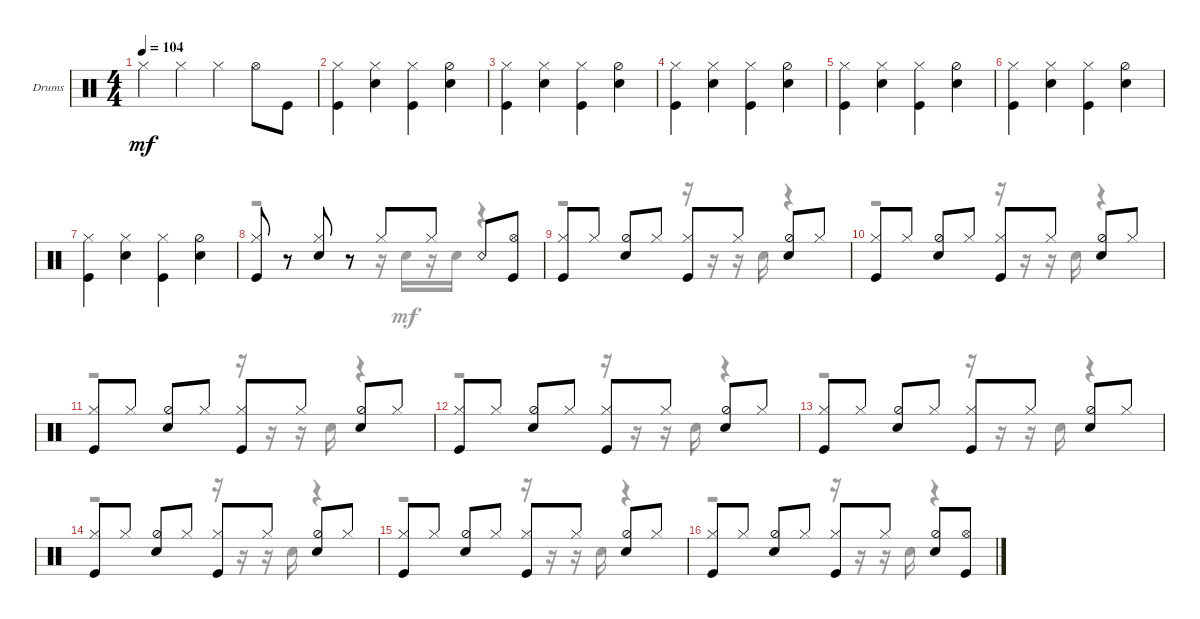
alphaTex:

\defaultSystemsLayout 4
\bracketExtendMode groupsimilarinstruments
\firstSystemTrackNameOrientation horizontal
\otherSystemsTrackNameOrientation horizontal
\track ("Drumkit" "Drums") {instrument percussion}
\staff {score}
\articulation defaults
\voice
\ts (4 4)
\tempo 104
\clef neutral
\ks c "Hi-Hat (closed)".4{dy mf} "Hi-Hat (closed)".4 "Hi-Hat (closed)".4 "Hi-Hat (open)".8 "Kick (hit)".8
|
("Hi-Hat (closed)" "Kick (hit)").4 ("Hi-Hat (closed)" "Snare (hit) 2").4 ("Hi-Hat (closed)" "Kick (hit)").4 ("Hi-Hat (half)" "Snare (hit) 2").4 |
("Hi-Hat (closed)" "Kick (hit)").4 ("Hi-Hat (closed)" "Snare (hit) 2").4 ("Hi-Hat (closed)" "Kick (hit)").4 ("Hi-Hat (half)" "Snare (hit) 2").4 |
("Hi-Hat (closed)" "Kick (hit)").4 ("Hi-Hat (closed)" "Snare (hit) 2").4 ("Hi-Hat (closed)" "Kick (hit)").4 ("Hi-Hat (half)" "Snare (hit) 2").4 |
("Hi-Hat (closed)" "Kick (hit)").4 ("Hi-Hat (closed)" "Snare (hit) 2").4 ("Hi-Hat (closed)" "Kick (hit)").4 ("Hi-Hat (half)" "Snare (hit) 2").4 |
("Hi-Hat (closed)" "Kick (hit)").4 ("Hi-Hat (closed)" "Snare (hit) 2").4 ("Hi-Hat (closed)" "Kick (hit)").4 ("Hi-Hat (half)" "Snare (hit) 2").4 |
("Hi-Hat (closed)" "Kick (hit)").4 ("Hi-Hat (closed)" "Snare (hit) 2").4 ("Hi-Hat (closed)" "Kick (hit)").4 ("Hi-Hat (half)" "Snare (hit) 2").4 |
("Hi-Hat (closed)" "Kick (hit)").8 r.8 ("Snare (hit) 2" "Hi-Hat (closed)").8 r.8 "Hi-Hat (closed)".8 "Hi-Hat (closed)".8 "Snare (rim shot)".8 ("Hi-Hat (open)" "Kick (hit)").8 |
("Hi-Hat (closed)" "Kick (hit)").8 "Hi-Hat (closed)".8 ("Hi-Hat (half)" "Snare (hit) 2").8 "Hi-Hat (closed)".8 ("Hi-Hat (closed)" "Kick (hit)").8 "Hi-Hat (closed)".8 ("Hi-Hat (half)" "Snare (hit) 2").8 "Hi-Hat (closed)".8 |
("Hi-Hat (closed)" "Kick (hit)").8 "Hi-Hat (closed)".8 ("Hi-Hat (half)" "Snare (hit) 2").8 "Hi-Hat (closed)".8 ("Hi-Hat (closed)" "Kick (hit)").8 "Hi-Hat (closed)".8 ("Hi-Hat (half)" "Snare (hit) 2").8 "Hi-Hat (closed)".8 |
("Hi-Hat (closed)" "Kick (hit)").8 "Hi-Hat (closed)".8 ("Hi-Hat (half)" "Snare (hit) 2").8 "Hi-Hat (closed)".8 ("Hi-Hat (closed)" "Kick (hit)").8 "Hi-Hat (closed)".8 ("Hi-Hat (half)" "Snare (hit) 2").8 "Hi-Hat (closed)".8 |
("Hi-Hat (closed)" "Kick (hit)").8 "Hi-Hat (closed)".8 ("Hi-Hat (half)" "Snare (hit) 2").8 "Hi-Hat (closed)".8 ("Hi-Hat (closed)" "Kick (hit)").8 "Hi-Hat (closed)".8 ("Hi-Hat (half)" "Snare (hit) 2").8 "Hi-Hat (closed)".8 |
("Hi-Hat (closed)" "Kick (hit)").8 "Hi-Hat (closed)".8 ("Hi-Hat (half)" "Snare (hit) 2").8 "Hi-Hat (closed)".8 ("Hi-Hat (closed)" "Kick (hit)").8 "Hi-Hat (closed)".8 ("Hi-Hat (half)" "Snare (hit) 2").8 "Hi-Hat (closed)".8 |
("Hi-Hat (closed)" "Kick (hit)").8 "Hi-Hat (closed)".8 ("Hi-Hat (half)" "Snare (hit) 2").8 "Hi-Hat (closed)".8 ("Hi-Hat (closed)" "Kick (hit)").8 "Hi-Hat (closed)".8 ("Hi-Hat (half)" "Snare (hit) 2").8 "Hi-Hat (closed)".8 |
("Hi-Hat (closed)" "Kick (hit)").8 "Hi-Hat (closed)".8 ("Hi-Hat (half)" "Snare (hit) 2").8 "Hi-Hat (closed)".8 ("Hi-Hat (closed)" "Kick (hit)").8 "Hi-Hat (closed)".8 ("Hi-Hat (half)" "Snare (hit) 2").8 "Hi-Hat (closed)".8 |
("Hi-Hat (closed)" "Kick (hit)").8 "Hi-Hat (closed)".8 ("Hi-Hat (half)" "Snare (hit) 2").8 "Hi-Hat (closed)".8 ("Hi-Hat (closed)" "Kick (hit)").8 "Hi-Hat (closed)".8 ("Hi-Hat (half)" "Snare (hit) 2").8 ("Hi-Hat (open)" "Kick (hit)").8
\voice
\clef neutral
\ottava regular
\simile none
\ks c
|
|
|
|
|
|
|
r.2 r.16 "Snare (hit) 2".16 r.16 "Snare (hit) 2".16 r.4 |
r.2 r.16 r.16 r.16 "Snare (hit) 2".16 r.4 |
r.2 r.16 r.16 r.16 "Snare (hit) 2".16 r.4 |
r.2 r.16 r.16 r.16 "Snare (hit) 2".16 r.4 |
r.2 r.16 r.16 r.16 "Snare (hit) 2".16 r.4 |
r.2 r.16 r.16 r.16 "Snare (hit) 2".16 r.4 |
r.2 r.16 r.16 r.16 "Snare (hit) 2".16 r.4 |
r.2 r.16 r.16 r.16 "Snare (hit) 2".16 r.4 |
r.2 r.16 r.16 r.16 "Snare (hit) 2".16 r.4
